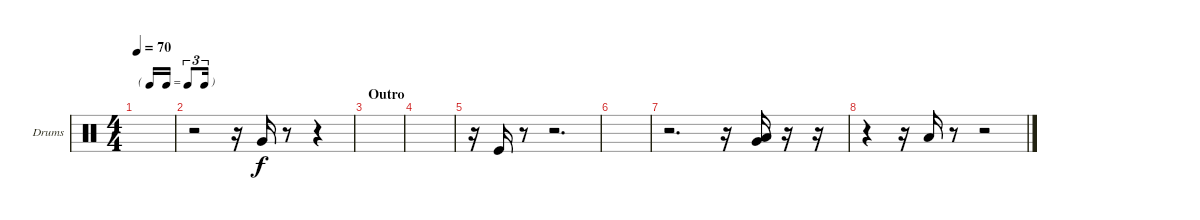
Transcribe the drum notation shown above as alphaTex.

\bracketExtendMode groupsimilarinstruments
\firstSystemTrackNameOrientation horizontal
\otherSystemsTrackNameOrientation horizontal
\track ("Tom" "Drums") {instrument percussion}
\staff {score}
\articulation defaults
\ts (4 4)
\tf triplet16th
\tempo 70
\clef neutral
\ks aminor
|
\scale
0.333333 r.2 r.16 "Very Low Tom (hit)".16 r.8 r.4 |
\section ("" "Outro")
\scale
0.333333 |
\scale
0.333333 |
\scale
0.333333 r.16 "Kick (hit)".16 r.8 r.2{d} |
\scale
0.333333 |
\scale
0.333333 r.2{d} r.16 ("Very Low Tom (hit)" "Low Tom (hit)").16 r.16 r.16 |
\scale
0.333333 r.4 r.16 "Low Tom (hit)".16 r.8 r.2 |
\scale
0.333333 |
\scale
0.333333 |
\scale
0.333333
